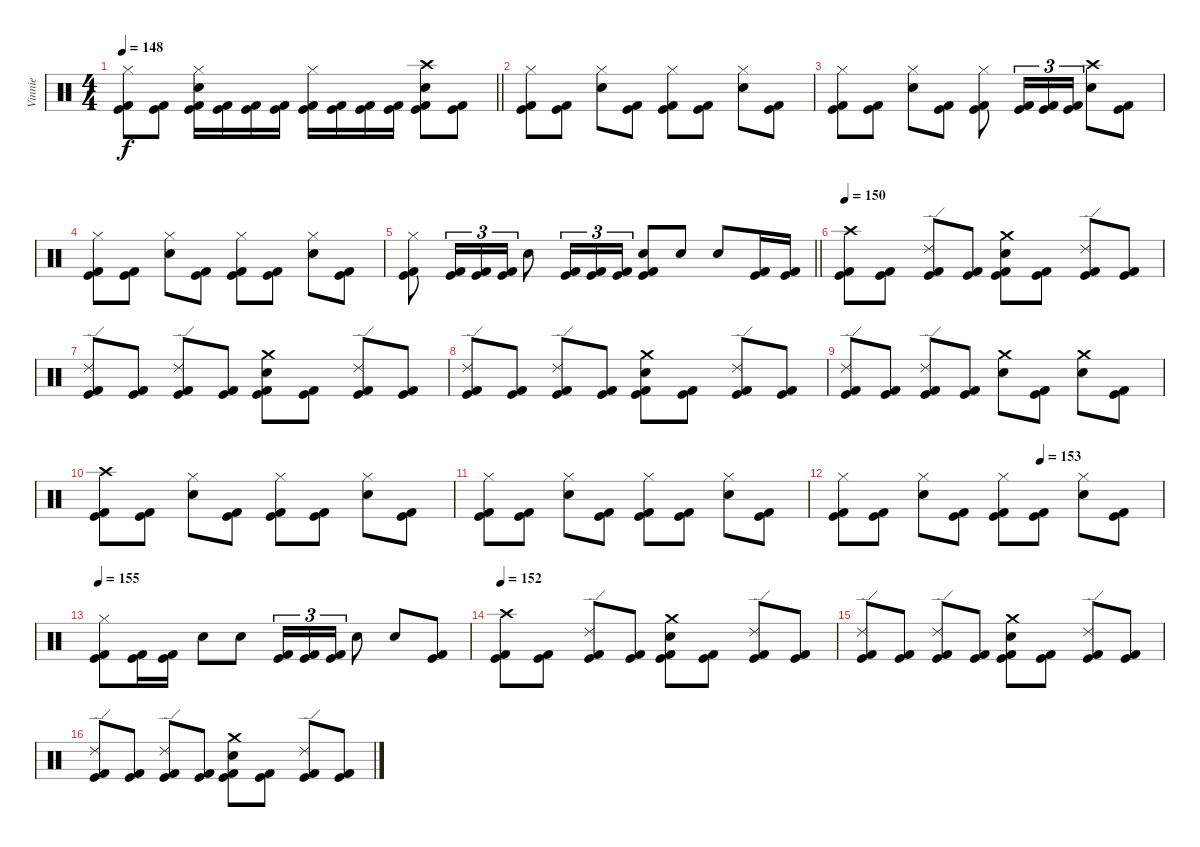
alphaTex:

\track ("Vinnie" "Vinnie") {instrument percussion}
\staff {score}
\articulation defaults
\ts (4 4)
\tempo 148
\clef neutral
\barLineRight lightlight
\ks c
("Hi-Hat (closed)" "Kick (hit)" "Kick (hit) 2").8{dy f} ("Kick (hit)" "Kick (hit) 2").8 ("Hi-Hat (closed)" "Electric Snare (hit)" "Kick (hit)" "Kick (hit) 2").16{bd 30} ("Kick (hit)" "Kick (hit) 2").16 ("Kick (hit)" "Kick (hit) 2").16 ("Kick (hit)" "Kick (hit) 2").16 ("Hi-Hat (closed)" "Kick (hit)" "Kick (hit) 2").16 ("Kick (hit)" "Kick (hit) 2").16 ("Kick (hit)" "Kick (hit) 2").16 ("Kick (hit)" "Kick (hit) 2").16 ("Crash high (hit)" "Electric Snare (hit)" "Kick (hit)" "Kick (hit) 2").8 ("Kick (hit)" "Kick (hit) 2").8 |
("Hi-Hat (closed)" "Kick (hit)" "Kick (hit) 2").8 ("Kick (hit)" "Kick (hit) 2").8 ("Hi-Hat (closed)" "Electric Snare (hit)").8 ("Kick (hit)" "Kick (hit) 2").8 ("Hi-Hat (closed)" "Kick (hit)" "Kick (hit) 2").8 ("Kick (hit)" "Kick (hit) 2").8 ("Hi-Hat (closed)" "Electric Snare (hit)").8 ("Kick (hit)" "Kick (hit) 2").8 |
("Hi-Hat (closed)" "Kick (hit)" "Kick (hit) 2").8 ("Kick (hit)" "Kick (hit) 2").8 ("Hi-Hat (closed)" "Electric Snare (hit)").8 ("Kick (hit)" "Kick (hit) 2").8 ("Hi-Hat (closed)" "Kick (hit)" "Kick (hit) 2").8 ("Kick (hit)" "Kick (hit) 2").16{tu (3 2)} ("Kick (hit)" "Kick (hit) 2").16{tu (3 2)} ("Kick (hit)" "Kick (hit) 2").16{tu (3 2)} ("Crash high (hit)" "Electric Snare (hit)").8 ("Kick (hit)" "Kick (hit) 2").8 |
("Hi-Hat (closed)" "Kick (hit)" "Kick (hit) 2").8 ("Kick (hit)" "Kick (hit) 2").8 ("Hi-Hat (closed)" "Electric Snare (hit)").8 ("Kick (hit)" "Kick (hit) 2").8 ("Hi-Hat (closed)" "Kick (hit)" "Kick (hit) 2").8 ("Kick (hit)" "Kick (hit) 2").8 ("Hi-Hat (closed)" "Electric Snare (hit)").8 ("Kick (hit)" "Kick (hit) 2").8 |
\barLineRight lightlight
("Hi-Hat (closed)" "Kick (hit)" "Kick (hit) 2").8 ("Kick (hit)" "Kick (hit) 2").16{tu (3 2)} ("Kick (hit)" "Kick (hit) 2").16{tu (3 2)} ("Kick (hit)" "Kick (hit) 2").16{tu (3 2)} "Electric Snare (hit)".8 ("Kick (hit)" "Kick (hit) 2").16{tu (3 2)} ("Kick (hit)" "Kick (hit) 2").16{tu (3 2)} ("Kick (hit)" "Kick (hit) 2").16{tu (3 2)} ("Electric Snare (hit)" "Kick (hit)" "Kick (hit) 2").8{bd 30} "Electric Snare (hit)".8 "Electric Snare (hit)".8 ("Kick (hit)" "Kick (hit) 2").16 ("Kick (hit)" "Kick (hit) 2").16 |
\tempo 150
("Crash high (hit)" "Kick (hit)" "Kick (hit) 2").8 ("Kick (hit)" "Kick (hit) 2").8 ("Ride (edge) 2" "Kick (hit)" "Kick (hit) 2").8 ("Kick (hit)" "Kick (hit) 2").8 ("Crash medium (hit)" "Electric Snare (hit)" "Kick (hit)" "Kick (hit) 2").8{bd 30} ("Kick (hit)" "Kick (hit) 2").8 ("Ride (edge) 2" "Kick (hit)" "Kick (hit) 2").8 ("Kick (hit)" "Kick (hit) 2").8 |
("Ride (edge) 2" "Kick (hit)" "Kick (hit) 2").8 ("Kick (hit)" "Kick (hit) 2").8 ("Ride (edge) 2" "Kick (hit)" "Kick (hit) 2").8 ("Kick (hit)" "Kick (hit) 2").8 ("Crash medium (hit)" "Electric Snare (hit)" "Kick (hit)" "Kick (hit) 2").8{bd 30} ("Kick (hit)" "Kick (hit) 2").8 ("Ride (edge) 2" "Kick (hit)" "Kick (hit) 2").8 ("Kick (hit)" "Kick (hit) 2").8 |
("Ride (edge) 2" "Kick (hit)" "Kick (hit) 2").8 ("Kick (hit)" "Kick (hit) 2").8 ("Ride (edge) 2" "Kick (hit)" "Kick (hit) 2").8 ("Kick (hit)" "Kick (hit) 2").8 ("Crash medium (hit)" "Electric Snare (hit)" "Kick (hit)" "Kick (hit) 2").8{bd 30} ("Kick (hit)" "Kick (hit) 2").8 ("Ride (edge) 2" "Kick (hit)" "Kick (hit) 2").8 ("Kick (hit)" "Kick (hit) 2").8 |
("Ride (edge) 2" "Kick (hit)" "Kick (hit) 2").8 ("Kick (hit)" "Kick (hit) 2").8 ("Ride (edge) 2" "Kick (hit)" "Kick (hit) 2").8 ("Kick (hit)" "Kick (hit) 2").8 ("Crash medium (hit)" "Electric Snare (hit)").8 ("Kick (hit)" "Kick (hit) 2").8 ("Crash medium (hit)" "Electric Snare (hit)").8 ("Kick (hit)" "Kick (hit) 2").8 |
("Crash high (hit)" "Kick (hit)" "Kick (hit) 2").8 ("Kick (hit)" "Kick (hit) 2").8 ("Hi-Hat (closed)" "Electric Snare (hit)").8 ("Kick (hit)" "Kick (hit) 2").8 ("Hi-Hat (closed)" "Kick (hit)" "Kick (hit) 2").8 ("Kick (hit)" "Kick (hit) 2").8 ("Hi-Hat (closed)" "Electric Snare (hit)").8 ("Kick (hit)" "Kick (hit) 2").8 |
("Hi-Hat (closed)" "Kick (hit)" "Kick (hit) 2").8 ("Kick (hit)" "Kick (hit) 2").8 ("Hi-Hat (closed)" "Electric Snare (hit)").8 ("Kick (hit)" "Kick (hit) 2").8 ("Hi-Hat (closed)" "Kick (hit)" "Kick (hit) 2").8 ("Kick (hit)" "Kick (hit) 2").8 ("Hi-Hat (closed)" "Electric Snare (hit)").8 ("Kick (hit)" "Kick (hit) 2").8 |
\tempo (153 0.625)
("Hi-Hat (closed)" "Kick (hit)" "Kick (hit) 2").8 ("Kick (hit)" "Kick (hit) 2").8 ("Hi-Hat (closed)" "Electric Snare (hit)").8 ("Kick (hit)" "Kick (hit) 2").8 ("Hi-Hat (closed)" "Kick (hit)" "Kick (hit) 2").8 ("Kick (hit)" "Kick (hit) 2").8 ("Hi-Hat (closed)" "Electric Snare (hit)").8 ("Kick (hit)" "Kick (hit) 2").8 |
\tempo 155
("Hi-Hat (closed)" "Kick (hit)" "Kick (hit) 2").8 ("Kick (hit)" "Kick (hit) 2").16 ("Kick (hit)" "Kick (hit) 2").16 "Electric Snare (hit)".8 "Electric Snare (hit)".8 ("Kick (hit)" "Kick (hit) 2").16{tu (3 2)} ("Kick (hit)" "Kick (hit) 2").16{tu (3 2)} ("Kick (hit)" "Kick (hit) 2").16{tu (3 2)} "Electric Snare (hit)".8 "Electric Snare (hit)".8 ("Kick (hit)" "Kick (hit) 2").8 |
\tempo 152
("Crash high (hit)" "Kick (hit)" "Kick (hit) 2").8 ("Kick (hit)" "Kick (hit) 2").8 ("Ride (edge) 2" "Kick (hit)" "Kick (hit) 2").8 ("Kick (hit)" "Kick (hit) 2").8 ("Crash medium (hit)" "Electric Snare (hit)" "Kick (hit)" "Kick (hit) 2").8 ("Kick (hit)" "Kick (hit) 2").8 ("Ride (edge) 2" "Kick (hit)" "Kick (hit) 2").8 ("Kick (hit)" "Kick (hit) 2").8 |
("Ride (edge) 2" "Kick (hit)" "Kick (hit) 2").8 ("Kick (hit)" "Kick (hit) 2").8 ("Ride (edge) 2" "Kick (hit)" "Kick (hit) 2").8 ("Kick (hit)" "Kick (hit) 2").8 ("Crash medium (hit)" "Electric Snare (hit)" "Kick (hit)" "Kick (hit) 2").8{bd 30} ("Kick (hit)" "Kick (hit) 2").8 ("Ride (edge) 2" "Kick (hit)" "Kick (hit) 2").8 ("Kick (hit)" "Kick (hit) 2").8 |
("Ride (edge) 2" "Kick (hit)" "Kick (hit) 2").8 ("Kick (hit)" "Kick (hit) 2").8 ("Ride (edge) 2" "Kick (hit)" "Kick (hit) 2").8 ("Kick (hit)" "Kick (hit) 2").8 ("Crash medium (hit)" "Electric Snare (hit)" "Kick (hit)" "Kick (hit) 2").8{bd 60} ("Kick (hit)" "Kick (hit) 2").8 ("Ride (edge) 2" "Kick (hit)" "Kick (hit) 2").8 ("Kick (hit)" "Kick (hit) 2").8
